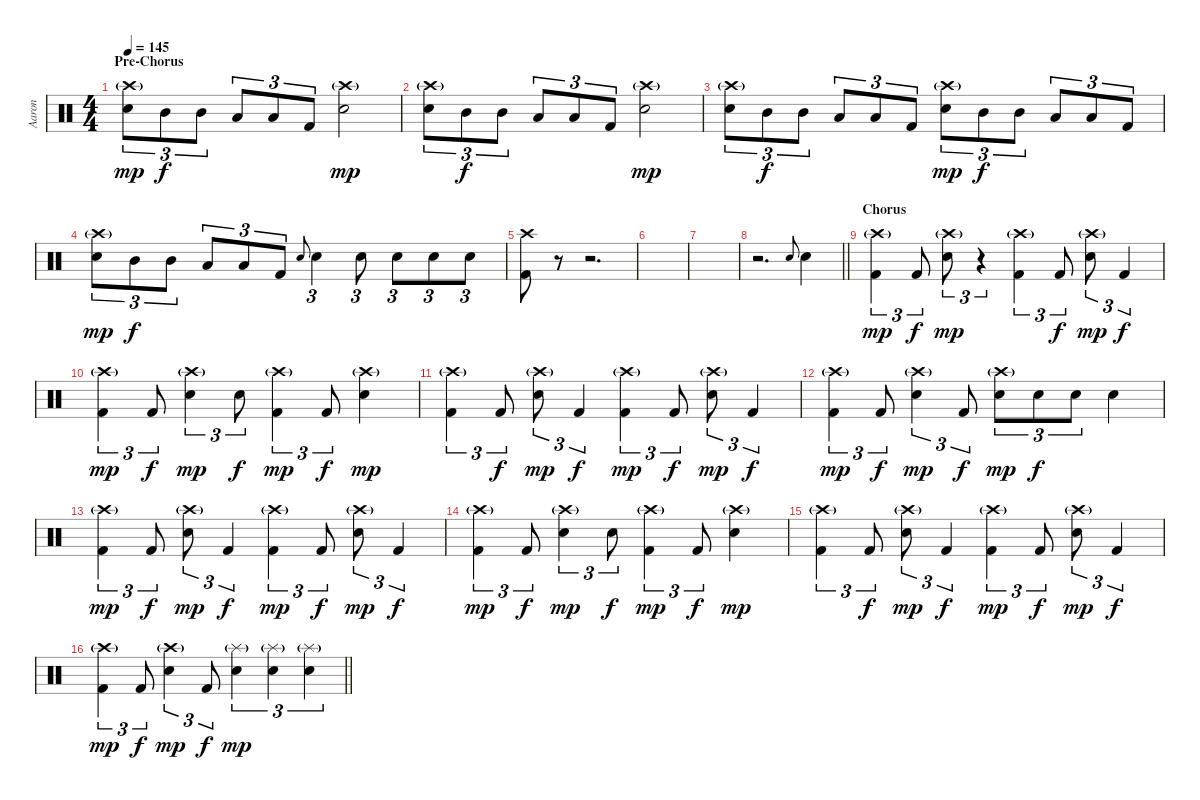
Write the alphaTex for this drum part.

\track ("Aaron" "Aaron") {instrument percussion}
\staff {score}
\articulation defaults
\ts (4 4)
\section ("" "Pre-Chorus")
\tempo 145
\clef neutral
\ks c
("Crash high (hit)"{g} "Electric Snare (hit)").8{tu (3 2) dy mp} "Mid Tom (hit)".8{tu (3 2) dy f} "Mid Tom (hit)".8{tu (3 2)} "Low Tom (hit)".8{tu (3 2)} "Low Tom (hit)".8{tu (3 2)} "Kick (hit) 2".8{tu (3 2)} ("Crash high (hit)"{g} "Electric Snare (hit)").2{dy mp} |
("Crash high (hit)"{g} "Electric Snare (hit)").8{tu (3 2)} "Mid Tom (hit)".8{tu (3 2) dy f} "Mid Tom (hit)".8{tu (3 2)} "Low Tom (hit)".8{tu (3 2)} "Low Tom (hit)".8{tu (3 2)} "Kick (hit) 2".8{tu (3 2)} ("Crash high (hit)"{g} "Electric Snare (hit)").2{dy mp} |
("Crash high (hit)"{g} "Electric Snare (hit)").8{tu (3 2)} "Mid Tom (hit)".8{tu (3 2) dy f} "Mid Tom (hit)".8{tu (3 2)} "Low Tom (hit)".8{tu (3 2)} "Low Tom (hit)".8{tu (3 2)} "Kick (hit) 2".8{tu (3 2)} ("Crash high (hit)"{g} "Electric Snare (hit)").8{tu (3 2) dy mp} "Mid Tom (hit)".8{tu (3 2) dy f} "Mid Tom (hit)".8{tu (3 2)} "Low Tom (hit)".8{tu (3 2)} "Low Tom (hit)".8{tu (3 2)} "Kick (hit) 2".8{tu (3 2)} |
("Crash high (hit)"{g} "Electric Snare (hit)").8{tu (3 2) dy mp} "Mid Tom (hit)".8{tu (3 2) dy f} "Mid Tom (hit)".8{tu (3 2)} "Low Tom (hit)".8{tu (3 2)} "Low Tom (hit)".8{tu (3 2)} "Kick (hit) 2".8{tu (3 2)} "Electric Snare (hit)".8{gr onbeat} "Electric Snare (hit)".4{tu (3 2)} "Electric Snare (hit)".8{tu (3 2)} "Electric Snare (hit)".8{tu (3 2)} "Electric Snare (hit)".8{tu (3 2)} "Electric Snare (hit)".8{tu (3 2)} |
("Crash high (hit)" "Kick (hit) 2").8 r.8 r.2{d} |
|
|
\barLineRight lightlight
r.2{d} "Electric Snare (hit)".8{gr onbeat} "Electric Snare (hit)".4 |
\section ("" "Chorus")
("Crash high (hit)"{g} "Kick (hit) 2").4{tu (3 2) dy mp} "Kick (hit) 2".8{tu (3 2) dy f} ("Crash high (hit)"{g} "Electric Snare (hit)").8{tu (3 2) dy mp} r.4{tu (3 2)} ("Crash high (hit)"{g} "Kick (hit) 2").4{tu (3 2)} "Kick (hit) 2".8{tu (3 2) dy f} ("Crash high (hit)"{g} "Electric Snare (hit)").8{tu (3 2) dy mp} "Kick (hit) 2".4{tu (3 2) dy f} |
("Crash high (hit)"{g} "Kick (hit) 2").4{tu (3 2) dy mp} "Kick (hit) 2".8{tu (3 2) dy f} ("Crash high (hit)"{g} "Electric Snare (hit)").4{tu (3 2) dy mp} "Electric Snare (hit)".8{tu (3 2) dy f} ("Crash high (hit)"{g} "Kick (hit) 2").4{tu (3 2) dy mp} "Kick (hit) 2".8{tu (3 2) dy f} ("Crash high (hit)"{g} "Electric Snare (hit)").4{dy mp} |
("Crash high (hit)"{g} "Kick (hit) 2").4{tu (3 2)} "Kick (hit) 2".8{tu (3 2) dy f} ("Crash high (hit)"{g} "Electric Snare (hit)").8{tu (3 2) dy mp} "Kick (hit) 2".4{tu (3 2) dy f} ("Crash high (hit)"{g} "Kick (hit) 2").4{tu (3 2) dy mp} "Kick (hit) 2".8{tu (3 2) dy f} ("Crash high (hit)"{g} "Electric Snare (hit)").8{tu (3 2) dy mp} "Kick (hit) 2".4{tu (3 2) dy f} |
("Crash high (hit)"{g} "Kick (hit) 2").4{tu (3 2) dy mp} "Kick (hit) 2".8{tu (3 2) dy f} ("Crash high (hit)"{g} "Electric Snare (hit)").4{tu (3 2) dy mp} "Kick (hit) 2".8{tu (3 2) dy f} ("Crash high (hit)"{g} "Electric Snare (hit)").8{tu (3 2) dy mp} "Electric Snare (hit)".8{tu (3 2) dy f} "Electric Snare (hit)".8{tu (3 2)} "Electric Snare (hit)".4 |
("Crash high (hit)"{g} "Kick (hit) 2").4{tu (3 2) dy mp} "Kick (hit) 2".8{tu (3 2) dy f} ("Crash high (hit)"{g} "Electric Snare (hit)").8{tu (3 2) dy mp} "Kick (hit) 2".4{tu (3 2) dy f} ("Crash high (hit)"{g} "Kick (hit) 2").4{tu (3 2) dy mp} "Kick (hit) 2".8{tu (3 2) dy f} ("Crash high (hit)"{g} "Electric Snare (hit)").8{tu (3 2) dy mp} "Kick (hit) 2".4{tu (3 2) dy f} |
("Crash high (hit)"{g} "Kick (hit) 2").4{tu (3 2) dy mp} "Kick (hit) 2".8{tu (3 2) dy f} ("Crash high (hit)"{g} "Electric Snare (hit)").4{tu (3 2) dy mp} "Electric Snare (hit)".8{tu (3 2) dy f} ("Crash high (hit)"{g} "Kick (hit) 2").4{tu (3 2) dy mp} "Kick (hit) 2".8{tu (3 2) dy f} ("Crash high (hit)"{g} "Electric Snare (hit)").4{dy mp} |
("Crash high (hit)"{g} "Kick (hit) 2").4{tu (3 2)} "Kick (hit) 2".8{tu (3 2) dy f} ("Crash high (hit)"{g} "Electric Snare (hit)").8{tu (3 2) dy mp} "Kick (hit) 2".4{tu (3 2) dy f} ("Crash high (hit)"{g} "Kick (hit) 2").4{tu (3 2) dy mp} "Kick (hit) 2".8{tu (3 2) dy f} ("Crash high (hit)"{g} "Electric Snare (hit)").8{tu (3 2) dy mp} "Kick (hit) 2".4{tu (3 2) dy f} |
\barLineRight lightlight
("Crash high (hit)"{g} "Kick (hit) 2").4{tu (3 2) dy mp} "Kick (hit) 2".8{tu (3 2) dy f} ("Crash high (hit)"{g} "Electric Snare (hit)").4{tu (3 2) dy mp} "Kick (hit) 2".8{tu (3 2) dy f} ("Splash (hit)"{g} "Electric Snare (hit)").4{tu (3 2) dy mp} ("Splash (hit)"{g} "Electric Snare (hit)").4{tu (3 2)} ("Splash (hit)"{g} "Electric Snare (hit)").4{tu (3 2)}
